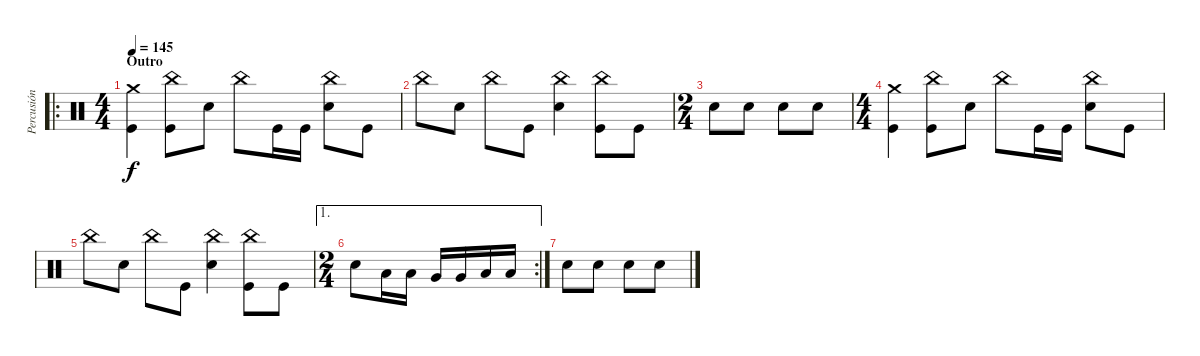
\track ("Percusión" "Percusión") {instrument percussion}
\staff {score}
\articulation defaults
\ro
\ts (4 4)
\section ("" "Outro")
\tempo 145
\clef neutral
\ks c
("Crash medium (hit)" "Kick (hit)").4{dy f} ("China (hit)" "Kick (hit)").8 "Snare (hit) 2".8 "China (hit)".8 "Kick (hit)".16 "Kick (hit)".16 ("China (hit)" "Snare (hit) 2").8 "Kick (hit)".8 |
"China (hit)".8 "Snare (hit) 2".8 "China (hit)".8 "Kick (hit)".8 ("China (hit)" "Snare (hit) 2").4 ("China (hit)" "Kick (hit)").8 "Kick (hit)".8 |
\ts (2 4)
"Snare (hit) 2".8 "Snare (hit) 2".8 "Snare (hit) 2".8 "Snare (hit) 2".8 |
\ts (4 4)
("Crash medium (hit)" "Kick (hit)").4 ("China (hit)" "Kick (hit)").8 "Snare (hit) 2".8 "China (hit)".8 "Kick (hit)".16 "Kick (hit)".16 ("China (hit)" "Snare (hit) 2").8 "Kick (hit)".8 |
"China (hit)".8 "Snare (hit) 2".8 "China (hit)".8 "Kick (hit)".8 ("China (hit)" "Snare (hit) 2").4 ("China (hit)" "Kick (hit)").8 "Kick (hit)".8 |
\ae 1
\rc 2
\ts (2 4)
"Snare (hit) 2".8 "Low Tom (hit)".16 "Low Tom (hit)".16 "Very Low Tom (hit)".16 "Very Low Tom (hit)".16 "Low Floor Tom (hit)".16 "Low Floor Tom (hit)".16 |
"Snare (hit) 2".8 "Snare (hit) 2".8 "Snare (hit) 2".8 "Snare (hit) 2".8
